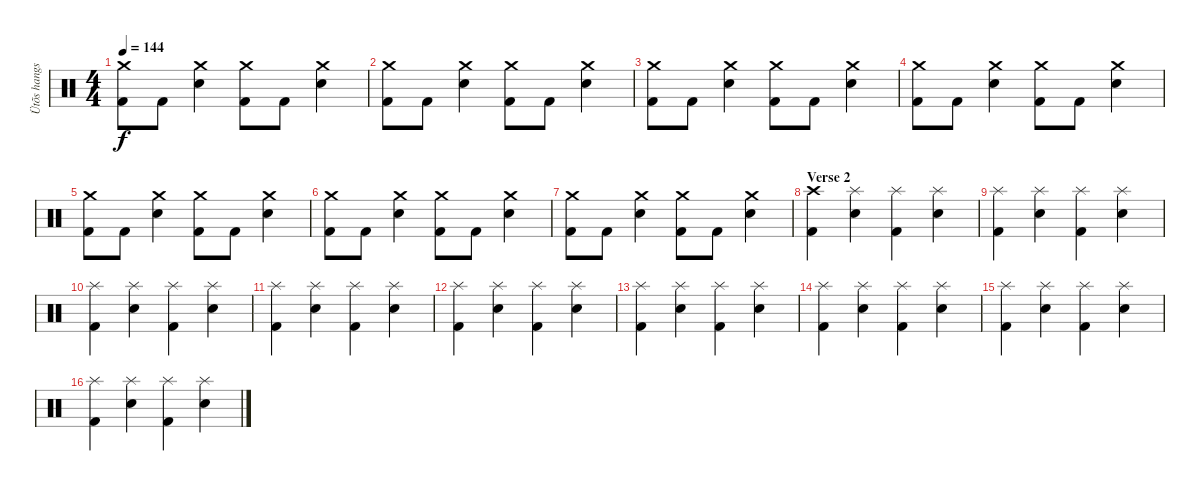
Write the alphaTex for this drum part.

\track ("Ütõs hangszer" "Ütõs hangs") {instrument percussion}
\staff {score}
\articulation defaults
\ts (4 4)
\tempo 144
\clef neutral
\ks c
("Crash medium (hit)" "Kick (hit) 2").8{dy f} "Kick (hit) 2".8 ("Crash medium (hit)" "Electric Snare (hit)").4 ("Crash medium (hit)" "Kick (hit) 2").8 "Kick (hit) 2".8 ("Crash medium (hit)" "Electric Snare (hit)").4 |
("Crash medium (hit)" "Kick (hit) 2").8 "Kick (hit) 2".8 ("Crash medium (hit)" "Electric Snare (hit)").4 ("Crash medium (hit)" "Kick (hit) 2").8 "Kick (hit) 2".8 ("Crash medium (hit)" "Electric Snare (hit)").4 |
("Crash medium (hit)" "Kick (hit) 2").8 "Kick (hit) 2".8 ("Crash medium (hit)" "Electric Snare (hit)").4 ("Crash medium (hit)" "Kick (hit) 2").8 "Kick (hit) 2".8 ("Crash medium (hit)" "Electric Snare (hit)").4 |
("Crash medium (hit)" "Kick (hit) 2").8 "Kick (hit) 2".8 ("Crash medium (hit)" "Electric Snare (hit)").4 ("Crash medium (hit)" "Kick (hit) 2").8 "Kick (hit) 2".8 ("Crash medium (hit)" "Electric Snare (hit)").4 |
("Crash medium (hit)" "Kick (hit) 2").8 "Kick (hit) 2".8 ("Crash medium (hit)" "Electric Snare (hit)").4 ("Crash medium (hit)" "Kick (hit) 2").8 "Kick (hit) 2".8 ("Crash medium (hit)" "Electric Snare (hit)").4 |
("Crash medium (hit)" "Kick (hit) 2").8 "Kick (hit) 2".8 ("Crash medium (hit)" "Electric Snare (hit)").4 ("Crash medium (hit)" "Kick (hit) 2").8 "Kick (hit) 2".8 ("Crash medium (hit)" "Electric Snare (hit)").4 |
("Crash medium (hit)" "Kick (hit) 2").8 "Kick (hit) 2".8 ("Crash medium (hit)" "Electric Snare (hit)").4 ("Crash medium (hit)" "Kick (hit) 2").8 "Kick (hit) 2".8 ("Crash medium (hit)" "Electric Snare (hit)").4 |
\section ("" "Verse 2")
("Crash high (hit)" "Kick (hit) 2").4 ("Splash (hit)" "Electric Snare (hit)").4 ("Splash (hit)" "Kick (hit) 2").4 ("Splash (hit)" "Electric Snare (hit)").4 |
("Splash (hit)" "Kick (hit) 2").4 ("Splash (hit)" "Electric Snare (hit)").4 ("Splash (hit)" "Kick (hit) 2").4 ("Splash (hit)" "Electric Snare (hit)").4 |
("Splash (hit)" "Kick (hit) 2").4 ("Splash (hit)" "Electric Snare (hit)").4 ("Splash (hit)" "Kick (hit) 2").4 ("Splash (hit)" "Electric Snare (hit)").4 |
("Splash (hit)" "Kick (hit) 2").4 ("Splash (hit)" "Electric Snare (hit)").4 ("Splash (hit)" "Kick (hit) 2").4 ("Splash (hit)" "Electric Snare (hit)").4 |
("Splash (hit)" "Kick (hit) 2").4 ("Splash (hit)" "Electric Snare (hit)").4 ("Splash (hit)" "Kick (hit) 2").4 ("Splash (hit)" "Electric Snare (hit)").4 |
("Splash (hit)" "Kick (hit) 2").4 ("Splash (hit)" "Electric Snare (hit)").4 ("Splash (hit)" "Kick (hit) 2").4 ("Splash (hit)" "Electric Snare (hit)").4 |
("Splash (hit)" "Kick (hit) 2").4 ("Splash (hit)" "Electric Snare (hit)").4 ("Splash (hit)" "Kick (hit) 2").4 ("Splash (hit)" "Electric Snare (hit)").4 |
("Splash (hit)" "Kick (hit) 2").4 ("Splash (hit)" "Electric Snare (hit)").4 ("Splash (hit)" "Kick (hit) 2").4 ("Splash (hit)" "Electric Snare (hit)").4 |
("Splash (hit)" "Kick (hit) 2").4 ("Splash (hit)" "Electric Snare (hit)").4 ("Splash (hit)" "Kick (hit) 2").4 ("Splash (hit)" "Electric Snare (hit)").4
